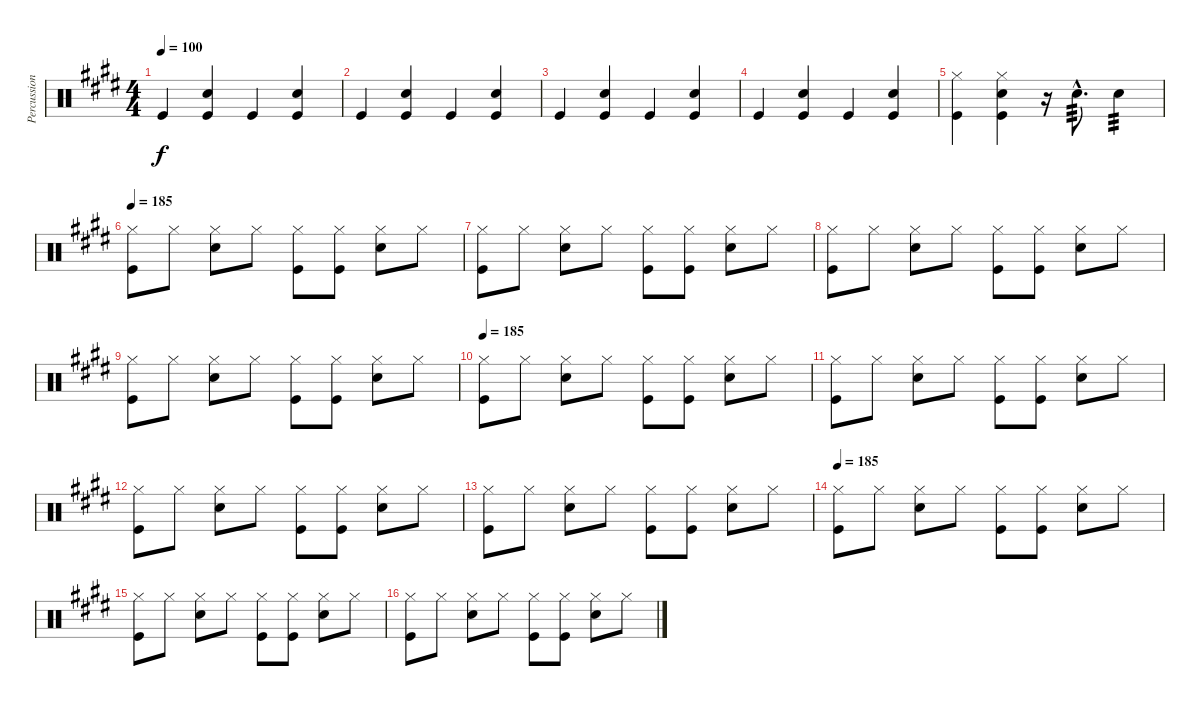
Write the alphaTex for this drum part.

\track ("Percussion" "Percussion") {instrument percussion}
\staff {score}
\articulation defaults
\ts (4 4)
\tempo 100
\clef neutral
\ks e "Kick (hit)".4{dy f}
("Snare (hit) 2" "Kick (hit)").4 "Kick (hit)".4 ("Snare (hit) 2" "Kick (hit)").4 |
"Kick (hit)".4 ("Snare (hit) 2" "Kick (hit)").4 "Kick (hit)".4 ("Snare (hit) 2" "Kick (hit)").4 |
"Kick (hit)".4 ("Snare (hit) 2" "Kick (hit)").4 "Kick (hit)".4 ("Snare (hit) 2" "Kick (hit)").4 |
"Kick (hit)".4 ("Snare (hit) 2" "Kick (hit)").4 "Kick (hit)".4 ("Snare (hit) 2" "Kick (hit)").4 |
("Hi-Hat (closed)" "Kick (hit)").4 ("Hi-Hat (closed)" "Snare (hit) 2" "Kick (hit)").4 r.16 "Snare (hit) 2"{hac}.8{d tp 3} "Snare (hit) 2".4{tp 3} |
\tempo 185
("Hi-Hat (closed)" "Kick (hit)").8 "Hi-Hat (closed)".8 ("Hi-Hat (closed)" "Snare (hit) 2").8 "Hi-Hat (closed)".8 ("Hi-Hat (closed)" "Kick (hit)").8 ("Hi-Hat (closed)" "Kick (hit)").8 ("Hi-Hat (closed)" "Snare (hit) 2").8 "Hi-Hat (closed)".8 |
("Hi-Hat (closed)" "Kick (hit)").8 "Hi-Hat (closed)".8 ("Hi-Hat (closed)" "Snare (hit) 2").8 "Hi-Hat (closed)".8 ("Hi-Hat (closed)" "Kick (hit)").8 ("Hi-Hat (closed)" "Kick (hit)").8 ("Hi-Hat (closed)" "Snare (hit) 2").8 "Hi-Hat (closed)".8 |
("Hi-Hat (closed)" "Kick (hit)").8 "Hi-Hat (closed)".8 ("Hi-Hat (closed)" "Snare (hit) 2").8 "Hi-Hat (closed)".8 ("Hi-Hat (closed)" "Kick (hit)").8 ("Hi-Hat (closed)" "Kick (hit)").8 ("Hi-Hat (closed)" "Snare (hit) 2").8 "Hi-Hat (closed)".8 |
("Hi-Hat (closed)" "Kick (hit)").8 "Hi-Hat (closed)".8 ("Hi-Hat (closed)" "Snare (hit) 2").8 "Hi-Hat (closed)".8 ("Hi-Hat (closed)" "Kick (hit)").8 ("Hi-Hat (closed)" "Kick (hit)").8 ("Hi-Hat (closed)" "Snare (hit) 2").8 "Hi-Hat (closed)".8 |
\tempo 185
("Hi-Hat (closed)" "Kick (hit)").8 "Hi-Hat (closed)".8 ("Hi-Hat (closed)" "Snare (hit) 2").8 "Hi-Hat (closed)".8 ("Hi-Hat (closed)" "Kick (hit)").8 ("Hi-Hat (closed)" "Kick (hit)").8 ("Hi-Hat (closed)" "Snare (hit) 2").8 "Hi-Hat (closed)".8 |
("Hi-Hat (closed)" "Kick (hit)").8 "Hi-Hat (closed)".8 ("Hi-Hat (closed)" "Snare (hit) 2").8 "Hi-Hat (closed)".8 ("Hi-Hat (closed)" "Kick (hit)").8 ("Hi-Hat (closed)" "Kick (hit)").8 ("Hi-Hat (closed)" "Snare (hit) 2").8 "Hi-Hat (closed)".8 |
("Hi-Hat (closed)" "Kick (hit)").8 "Hi-Hat (closed)".8 ("Hi-Hat (closed)" "Snare (hit) 2").8 "Hi-Hat (closed)".8 ("Hi-Hat (closed)" "Kick (hit)").8 ("Hi-Hat (closed)" "Kick (hit)").8 ("Hi-Hat (closed)" "Snare (hit) 2").8 "Hi-Hat (closed)".8 |
("Hi-Hat (closed)" "Kick (hit)").8 "Hi-Hat (closed)".8 ("Hi-Hat (closed)" "Snare (hit) 2").8 "Hi-Hat (closed)".8 ("Hi-Hat (closed)" "Kick (hit)").8 ("Hi-Hat (closed)" "Kick (hit)").8 ("Hi-Hat (closed)" "Snare (hit) 2").8 "Hi-Hat (closed)".8 |
\tempo 185
("Hi-Hat (closed)" "Kick (hit)").8 "Hi-Hat (closed)".8 ("Hi-Hat (closed)" "Snare (hit) 2").8 "Hi-Hat (closed)".8 ("Hi-Hat (closed)" "Kick (hit)").8 ("Hi-Hat (closed)" "Kick (hit)").8 ("Hi-Hat (closed)" "Snare (hit) 2").8 "Hi-Hat (closed)".8 |
("Hi-Hat (closed)" "Kick (hit)").8 "Hi-Hat (closed)".8 ("Hi-Hat (closed)" "Snare (hit) 2").8 "Hi-Hat (closed)".8 ("Hi-Hat (closed)" "Kick (hit)").8 ("Hi-Hat (closed)" "Kick (hit)").8 ("Hi-Hat (closed)" "Snare (hit) 2").8 "Hi-Hat (closed)".8 |
("Hi-Hat (closed)" "Kick (hit)").8 "Hi-Hat (closed)".8 ("Hi-Hat (closed)" "Snare (hit) 2").8 "Hi-Hat (closed)".8 ("Hi-Hat (closed)" "Kick (hit)").8 ("Hi-Hat (closed)" "Kick (hit)").8 ("Hi-Hat (closed)" "Snare (hit) 2").8 "Hi-Hat (closed)".8
